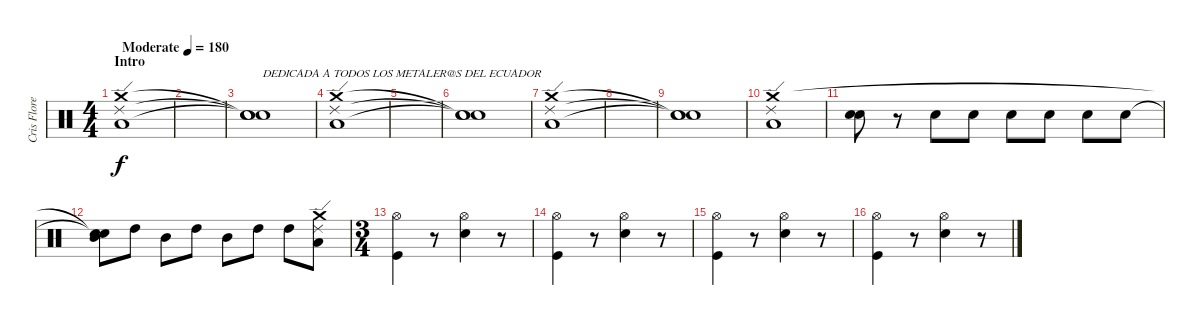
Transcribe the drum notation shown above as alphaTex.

\track ("Cris Flores" "Cris Flore") {instrument percussion}
\staff {score}
\articulation defaults
\ts (4 4)
\section ("" "Intro")
\tempo (180 "Moderate")
\clef neutral
\ks c
("Low Floor Tom (hit)" "Ride (edge) 2" "Crash medium (hit)").1{dy f} |
|
("Snare (hit)"{t} "Snare (hit)"{t} "Snare (hit)"{t}).1{txt "DEDICADA A TODOS LOS METALER@S DEL ECUADOR"} |
("Low Floor Tom (hit)" "Ride (edge) 2" "Crash medium (hit)").1 |
|
("Snare (hit)"{t} "Snare (hit)"{t} "Snare (hit)"{t}).1 |
("Low Floor Tom (hit)" "Ride (edge) 2" "Crash medium (hit)").1 |
|
("Snare (hit)"{t} "Snare (hit)"{t} "Snare (hit)"{t}).1 |
("Low Floor Tom (hit)" "Ride (edge) 2" "Crash medium (hit)").1 |
("Electric Snare (hit)" "Snare (hit) 2").8 r.8 "Snare (hit) 2".8 "Snare (hit) 2".8 "Snare (hit) 2".8 "Snare (hit) 2".8 "Snare (hit) 2".8 "Snare (hit) 2".8 |
("Snare (hit)"{t} "Mid Tom (hit)" "Snare (hit)"{t}).8 "High Tom (hit)".8 "Mid Tom (hit)".8 "High Tom (hit)".8 "Mid Tom (hit)".8 "High Tom (hit)".8 "High Tom (hit)".8 ("Low Floor Tom (hit)" "Ride (edge) 2" "Crash medium (hit)").8 |
\ts (3 4)
("Kick (hit)" "Hi-Hat (open)").4 r.8 ("Snare (hit) 2" "Hi-Hat (open)").4 r.8 |
("Kick (hit)" "Hi-Hat (open)").4 r.8 ("Snare (hit) 2" "Hi-Hat (open)").4 r.8 |
("Kick (hit)" "Hi-Hat (open)").4 r.8 ("Snare (hit) 2" "Hi-Hat (open)").4 r.8 |
("Kick (hit)" "Hi-Hat (open)").4 r.8 ("Snare (hit) 2" "Hi-Hat (open)").4 r.8
